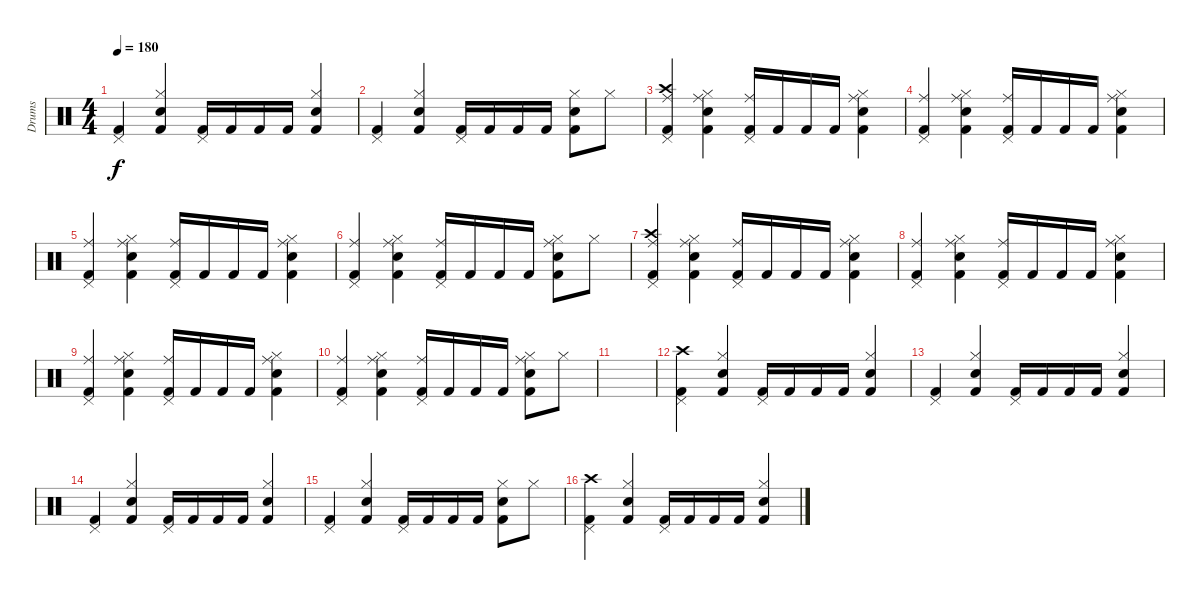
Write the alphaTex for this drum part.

\track ("Drums" "Drums") {instrument percussion}
\staff {score}
\articulation defaults
\ts (4 4)
\tempo 180
\clef neutral
\ks c
("Pedal Hi-Hat (hit)" "Kick (hit) 2").4{dy f} ("Hi-Hat (closed)" "Snare (hit) 2" "Kick (hit) 2").4 ("Pedal Hi-Hat (hit)" "Kick (hit) 2").16 "Kick (hit) 2".16 "Kick (hit) 2".16 "Kick (hit) 2".16 ("Hi-Hat (closed)" "Snare (hit) 2" "Kick (hit) 2").4 |
("Pedal Hi-Hat (hit)" "Kick (hit) 2").4 ("Hi-Hat (closed)" "Snare (hit) 2" "Kick (hit) 2").4 ("Pedal Hi-Hat (hit)" "Kick (hit) 2").16 "Kick (hit) 2".16 "Kick (hit) 2".16 "Kick (hit) 2".16 ("Hi-Hat (closed)" "Snare (hit) 2" "Kick (hit) 2").8 "Hi-Hat (closed)".8 |
("Crash high (hit)" "Pedal Hi-Hat (hit)" "Ride (middle)" "Kick (hit) 2").4 ("Hi-Hat (closed)" "Ride (middle)" "Snare (hit) 2" "Kick (hit) 2").4 ("Pedal Hi-Hat (hit)" "Ride (middle)" "Kick (hit) 2").16 "Kick (hit) 2".16 "Kick (hit) 2".16 "Kick (hit) 2".16 ("Hi-Hat (closed)" "Ride (middle)" "Snare (hit) 2" "Kick (hit) 2").4 |
("Pedal Hi-Hat (hit)" "Ride (middle)" "Kick (hit) 2").4 ("Hi-Hat (closed)" "Ride (middle)" "Snare (hit) 2" "Kick (hit) 2").4 ("Pedal Hi-Hat (hit)" "Ride (middle)" "Kick (hit) 2").16 "Kick (hit) 2".16 "Kick (hit) 2".16 "Kick (hit) 2".16 ("Hi-Hat (closed)" "Ride (middle)" "Snare (hit) 2" "Kick (hit) 2").4 |
("Pedal Hi-Hat (hit)" "Ride (middle)" "Kick (hit) 2").4 ("Hi-Hat (closed)" "Ride (middle)" "Snare (hit) 2" "Kick (hit) 2").4 ("Pedal Hi-Hat (hit)" "Ride (middle)" "Kick (hit) 2").16 "Kick (hit) 2".16 "Kick (hit) 2".16 "Kick (hit) 2".16 ("Hi-Hat (closed)" "Ride (middle)" "Snare (hit) 2" "Kick (hit) 2").4 |
("Pedal Hi-Hat (hit)" "Ride (middle)" "Kick (hit) 2").4 ("Hi-Hat (closed)" "Ride (middle)" "Snare (hit) 2" "Kick (hit) 2").4 ("Pedal Hi-Hat (hit)" "Ride (middle)" "Kick (hit) 2").16 "Kick (hit) 2".16 "Kick (hit) 2".16 "Kick (hit) 2".16 ("Hi-Hat (closed)" "Ride (middle)" "Snare (hit) 2" "Kick (hit) 2").8 "Hi-Hat (closed)".8 |
("Crash high (hit)" "Pedal Hi-Hat (hit)" "Ride (middle)" "Kick (hit) 2").4 ("Hi-Hat (closed)" "Ride (middle)" "Snare (hit) 2" "Kick (hit) 2").4 ("Pedal Hi-Hat (hit)" "Ride (middle)" "Kick (hit) 2").16 "Kick (hit) 2".16 "Kick (hit) 2".16 "Kick (hit) 2".16 ("Hi-Hat (closed)" "Ride (middle)" "Snare (hit) 2" "Kick (hit) 2").4 |
("Pedal Hi-Hat (hit)" "Ride (middle)" "Kick (hit) 2").4 ("Hi-Hat (closed)" "Ride (middle)" "Snare (hit) 2" "Kick (hit) 2").4 ("Pedal Hi-Hat (hit)" "Ride (middle)" "Kick (hit) 2").16 "Kick (hit) 2".16 "Kick (hit) 2".16 "Kick (hit) 2".16 ("Hi-Hat (closed)" "Ride (middle)" "Snare (hit) 2" "Kick (hit) 2").4 |
("Pedal Hi-Hat (hit)" "Ride (middle)" "Kick (hit) 2").4 ("Hi-Hat (closed)" "Ride (middle)" "Snare (hit) 2" "Kick (hit) 2").4 ("Pedal Hi-Hat (hit)" "Ride (middle)" "Kick (hit) 2").16 "Kick (hit) 2".16 "Kick (hit) 2".16 "Kick (hit) 2".16 ("Hi-Hat (closed)" "Ride (middle)" "Snare (hit) 2" "Kick (hit) 2").4 |
("Pedal Hi-Hat (hit)" "Ride (middle)" "Kick (hit) 2").4 ("Hi-Hat (closed)" "Ride (middle)" "Snare (hit) 2" "Kick (hit) 2").4 ("Pedal Hi-Hat (hit)" "Ride (middle)" "Kick (hit) 2").16 "Kick (hit) 2".16 "Kick (hit) 2".16 "Kick (hit) 2".16 ("Hi-Hat (closed)" "Ride (middle)" "Snare (hit) 2" "Kick (hit) 2").8 "Hi-Hat (closed)".8 |
|
("Crash high (hit)" "Pedal Hi-Hat (hit)" "Kick (hit) 2").4 ("Hi-Hat (closed)" "Snare (hit) 2" "Kick (hit) 2").4 ("Pedal Hi-Hat (hit)" "Kick (hit) 2").16 "Kick (hit) 2".16 "Kick (hit) 2".16 "Kick (hit) 2".16 ("Hi-Hat (closed)" "Snare (hit) 2" "Kick (hit) 2").4 |
("Pedal Hi-Hat (hit)" "Kick (hit) 2").4 ("Hi-Hat (closed)" "Snare (hit) 2" "Kick (hit) 2").4 ("Pedal Hi-Hat (hit)" "Kick (hit) 2").16 "Kick (hit) 2".16 "Kick (hit) 2".16 "Kick (hit) 2".16 ("Hi-Hat (closed)" "Snare (hit) 2" "Kick (hit) 2").4 |
("Pedal Hi-Hat (hit)" "Kick (hit) 2").4 ("Hi-Hat (closed)" "Snare (hit) 2" "Kick (hit) 2").4 ("Pedal Hi-Hat (hit)" "Kick (hit) 2").16 "Kick (hit) 2".16 "Kick (hit) 2".16 "Kick (hit) 2".16 ("Hi-Hat (closed)" "Snare (hit) 2" "Kick (hit) 2").4 |
("Pedal Hi-Hat (hit)" "Kick (hit) 2").4 ("Hi-Hat (closed)" "Snare (hit) 2" "Kick (hit) 2").4 ("Pedal Hi-Hat (hit)" "Kick (hit) 2").16 "Kick (hit) 2".16 "Kick (hit) 2".16 "Kick (hit) 2".16 ("Hi-Hat (closed)" "Snare (hit) 2" "Kick (hit) 2").8 "Hi-Hat (closed)".8 |
("Crash high (hit)" "Pedal Hi-Hat (hit)" "Kick (hit) 2").4 ("Hi-Hat (closed)" "Snare (hit) 2" "Kick (hit) 2").4 ("Pedal Hi-Hat (hit)" "Kick (hit) 2").16 "Kick (hit) 2".16 "Kick (hit) 2".16 "Kick (hit) 2".16 ("Hi-Hat (closed)" "Snare (hit) 2" "Kick (hit) 2").4
